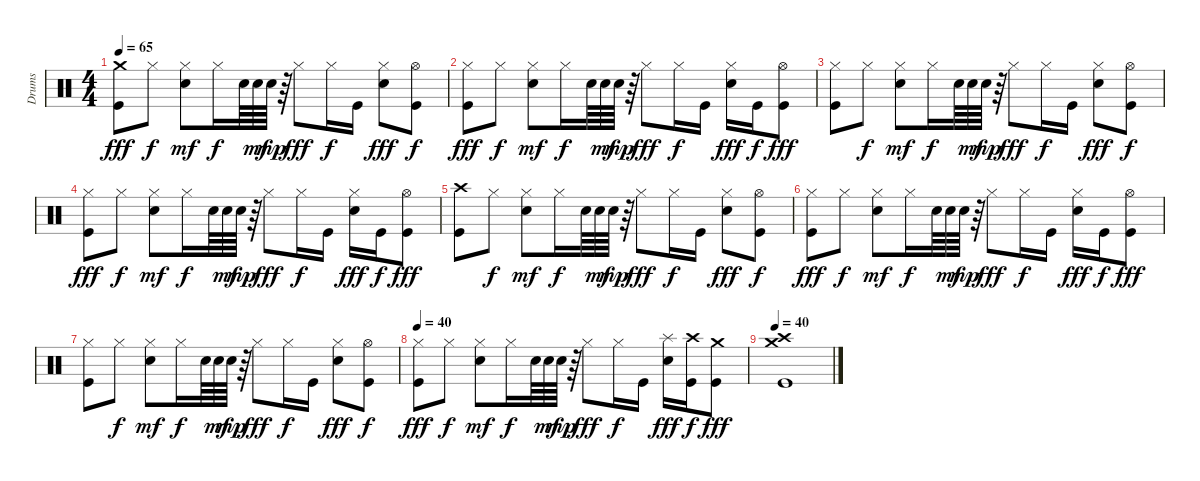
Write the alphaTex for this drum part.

\track ("Drums" "Drums") {instrument percussion}
\staff {score}
\articulation defaults
\ts (4 4)
\tempo 65
\clef neutral
\ks c
("Crash medium (hit)" "Kick (hit)").8{dy fff volume 16} "Hi-Hat (closed)".8{dy f} ("Hi-Hat (closed)" "Snare (hit) 2").8{dy mf} "Hi-Hat (closed)".16{dy f} "Snare (hit) 2".64 "Snare (hit) 2".64{dy mf} "Snare (hit) 2".64{dy mp} r.64 "Hi-Hat (closed)".8{dy fff} "Hi-Hat (closed)".16{dy f} "Kick (hit)".16 ("Hi-Hat (closed)" "Snare (hit) 2").8{dy fff} ("Hi-Hat (open)" "Kick (hit)").8{dy f} |
("Hi-Hat (closed)" "Kick (hit)").8{dy fff} "Hi-Hat (closed)".8{dy f} ("Hi-Hat (closed)" "Snare (hit) 2").8{dy mf} "Hi-Hat (closed)".16{dy f} "Snare (hit) 2".64 "Snare (hit) 2".64{dy mf} "Snare (hit) 2".64{dy mp} r.64 "Hi-Hat (closed)".8{dy fff} "Hi-Hat (closed)".16{dy f} "Kick (hit)".16 ("Hi-Hat (closed)" "Snare (hit) 2").16{dy fff} "Kick (hit)".16{dy f} ("Hi-Hat (open)" "Kick (hit)").8{dy fff} |
("Hi-Hat (closed)" "Kick (hit)").8 "Hi-Hat (closed)".8{dy f} ("Hi-Hat (closed)" "Snare (hit) 2").8{dy mf} "Hi-Hat (closed)".16{dy f} "Snare (hit) 2".64 "Snare (hit) 2".64{dy mf} "Snare (hit) 2".64{dy mp} r.64 "Hi-Hat (closed)".8{dy fff} "Hi-Hat (closed)".16{dy f} "Kick (hit)".16 ("Hi-Hat (closed)" "Snare (hit) 2").8{dy fff} ("Hi-Hat (open)" "Kick (hit)").8{dy f} |
("Hi-Hat (closed)" "Kick (hit)").8{dy fff} "Hi-Hat (closed)".8{dy f} ("Hi-Hat (closed)" "Snare (hit) 2").8{dy mf} "Hi-Hat (closed)".16{dy f} "Snare (hit) 2".64 "Snare (hit) 2".64{dy mf} "Snare (hit) 2".64{dy mp} r.64 "Hi-Hat (closed)".8{dy fff} "Hi-Hat (closed)".16{dy f} "Kick (hit)".16 ("Hi-Hat (closed)" "Snare (hit) 2").16{dy fff} "Kick (hit)".16{dy f} ("Hi-Hat (open)" "Kick (hit)").8{dy fff} |
("Crash high (hit)" "Kick (hit)").8 "Hi-Hat (closed)".8{dy f} ("Hi-Hat (closed)" "Snare (hit) 2").8{dy mf} "Hi-Hat (closed)".16{dy f} "Snare (hit) 2".64 "Snare (hit) 2".64{dy mf} "Snare (hit) 2".64{dy mp} r.64 "Hi-Hat (closed)".8{dy fff} "Hi-Hat (closed)".16{dy f} "Kick (hit)".16 ("Hi-Hat (closed)" "Snare (hit) 2").8{dy fff} ("Hi-Hat (open)" "Kick (hit)").8{dy f} |
("Hi-Hat (closed)" "Kick (hit)").8{dy fff} "Hi-Hat (closed)".8{dy f} ("Hi-Hat (closed)" "Snare (hit) 2").8{dy mf} "Hi-Hat (closed)".16{dy f} "Snare (hit) 2".64 "Snare (hit) 2".64{dy mf} "Snare (hit) 2".64{dy mp} r.64 "Hi-Hat (closed)".8{dy fff} "Hi-Hat (closed)".16{dy f} "Kick (hit)".16 ("Hi-Hat (closed)" "Snare (hit) 2").16{dy fff} "Kick (hit)".16{dy f} ("Hi-Hat (open)" "Kick (hit)").8{dy fff} |
("Hi-Hat (closed)" "Kick (hit)").8 "Hi-Hat (closed)".8{dy f} ("Hi-Hat (closed)" "Snare (hit) 2").8{dy mf} "Hi-Hat (closed)".16{dy f} "Snare (hit) 2".64 "Snare (hit) 2".64{dy mf} "Snare (hit) 2".64{dy mp} r.64 "Hi-Hat (closed)".8{dy fff} "Hi-Hat (closed)".16{dy f} "Kick (hit)".16 ("Hi-Hat (closed)" "Snare (hit) 2").8{dy fff} ("Hi-Hat (open)" "Kick (hit)").8{dy f} |
\tempo 40
("Hi-Hat (closed)" "Kick (hit)").8{dy fff} "Hi-Hat (closed)".8{dy f} ("Hi-Hat (closed)" "Snare (hit) 2").8{dy mf} "Hi-Hat (closed)".16{dy f} "Snare (hit) 2".64 "Snare (hit) 2".64{dy mf} "Snare (hit) 2".64{dy mp} r.64 "Hi-Hat (closed)".8{dy fff} "Hi-Hat (closed)".16{dy f} "Kick (hit)".16 ("Splash (hit)" "Snare (hit) 2").16{dy fff} ("Crash high (hit)" "Kick (hit)").16{dy f} ("Crash medium (hit)" "Kick (hit)").8{dy fff} |
\tempo 40
("Crash medium (hit)" "Crash high (hit)" "Kick (hit)").1
